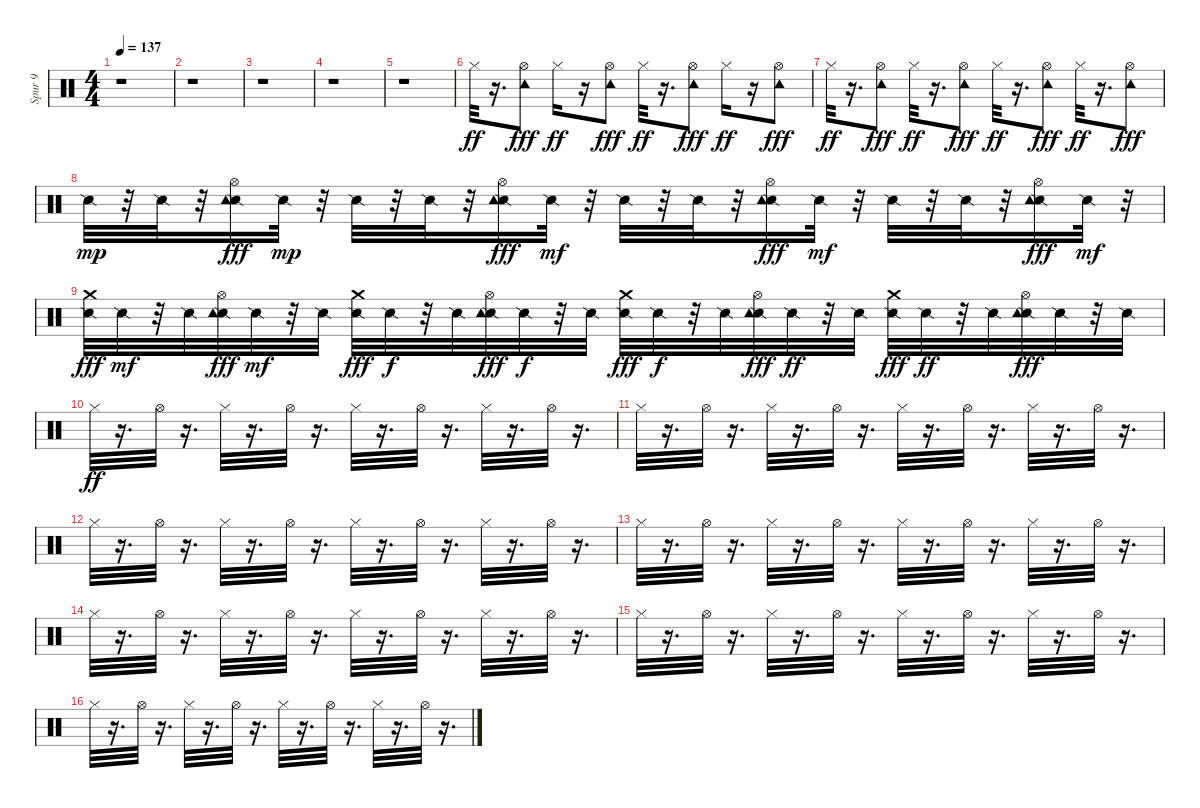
\track ("Spur 9" "Spur 9") {instrument percussion}
\staff {score}
\articulation defaults
\ts (4 4)
\tempo 137
\clef neutral
\ks c
r.1{dy ff} |
r.1 |
r.1 |
r.1 |
r.1 |
"Hi-Hat (closed)".32 r.16{d} ("Hi-Hat (open)" "Tambourine (hit)").8{dy fff} "Hi-Hat (closed)".16{dy ff} r.16 ("Hi-Hat (open)" "Tambourine (hit)").8{dy fff} "Hi-Hat (closed)".32{dy ff} r.16{d} ("Hi-Hat (open)" "Tambourine (hit)").8{dy fff} "Hi-Hat (closed)".16{dy ff} r.16 ("Hi-Hat (open)" "Tambourine (hit)").8{dy fff} |
"Hi-Hat (closed)".32{dy ff} r.16{d} ("Hi-Hat (open)" "Tambourine (hit)").8{dy fff} "Hi-Hat (closed)".32{dy ff} r.16{d} ("Hi-Hat (open)" "Tambourine (hit)").8{dy fff} "Hi-Hat (closed)".32{dy ff} r.16{d} ("Hi-Hat (open)" "Tambourine (hit)").8{dy fff} "Hi-Hat (closed)".32{dy ff} r.16{d} ("Hi-Hat (open)" "Tambourine (hit)").8{dy fff} |
"Snare (side stick) 2".32{dy mp} r.32 "Snare (side stick) 2".32 r.32 ("Snare (side stick) 2" "Hi-Hat (open)" "Tambourine (hit)").16{dy fff} "Snare (side stick) 2".32{dy mp} r.32 "Snare (side stick) 2".32 r.32 "Snare (side stick) 2".32 r.32 ("Snare (side stick) 2" "Hi-Hat (open)" "Tambourine (hit)").16{dy fff} "Snare (side stick) 2".32{dy mf} r.32 "Snare (side stick) 2".32 r.32 "Snare (side stick) 2".32 r.32 ("Snare (side stick) 2" "Hi-Hat (open)" "Tambourine (hit)").16{dy fff} "Snare (side stick) 2".32{dy mf} r.32 "Snare (side stick) 2".32 r.32 "Snare (side stick) 2".32 r.32 ("Snare (side stick) 2" "Hi-Hat (open)" "Tambourine (hit)").16{dy fff} "Snare (side stick) 2".32{dy mf} r.32 |
("Snare (side stick) 2" "Crash medium (hit)").32{dy fff} "Snare (side stick) 2".32{dy mf} r.32 "Snare (side stick) 2".32 ("Snare (side stick) 2" "Hi-Hat (open)" "Tambourine (hit)").32{dy fff} "Snare (side stick) 2".32{dy mf} r.32 "Snare (side stick) 2".32 ("Snare (side stick) 2" "Crash medium (hit)").32{dy fff} "Snare (side stick) 2".32{dy f} r.32 "Snare (side stick) 2".32 ("Snare (side stick) 2" "Hi-Hat (open)" "Tambourine (hit)").32{dy fff} "Snare (side stick) 2".32{dy f} r.32 "Snare (side stick) 2".32 ("Snare (side stick) 2" "Crash medium (hit)").32{dy fff} "Snare (side stick) 2".32{dy f} r.32 "Snare (side stick) 2".32 ("Snare (side stick) 2" "Hi-Hat (open)" "Tambourine (hit)").32{dy fff} "Snare (side stick) 2".32{dy ff} r.32 "Snare (side stick) 2".32 ("Snare (side stick) 2" "Crash medium (hit)").32{dy fff} "Snare (side stick) 2".32{dy ff} r.32 "Snare (side stick) 2".32 ("Snare (side stick) 2" "Hi-Hat (open)" "Tambourine (hit)").32{dy fff} "Snare (side stick) 2".32 r.32 "Snare (side stick) 2".32 |
"Hi-Hat (closed)".32{dy ff} r.16{d} "Hi-Hat (open)".32 r.16{d} "Hi-Hat (closed)".32 r.16{d} "Hi-Hat (open)".32 r.16{d} "Hi-Hat (closed)".32 r.16{d} "Hi-Hat (open)".32 r.16{d} "Hi-Hat (closed)".32 r.16{d} "Hi-Hat (open)".32 r.16{d} |
"Hi-Hat (closed)".32 r.16{d} "Hi-Hat (open)".32 r.16{d} "Hi-Hat (closed)".32 r.16{d} "Hi-Hat (open)".32 r.16{d} "Hi-Hat (closed)".32 r.16{d} "Hi-Hat (open)".32 r.16{d} "Hi-Hat (closed)".32 r.16{d} "Hi-Hat (open)".32 r.16{d} |
"Hi-Hat (closed)".32 r.16{d} "Hi-Hat (open)".32 r.16{d} "Hi-Hat (closed)".32 r.16{d} "Hi-Hat (open)".32 r.16{d} "Hi-Hat (closed)".32 r.16{d} "Hi-Hat (open)".32 r.16{d} "Hi-Hat (closed)".32 r.16{d} "Hi-Hat (open)".32 r.16{d} |
"Hi-Hat (closed)".32 r.16{d} "Hi-Hat (open)".32 r.16{d} "Hi-Hat (closed)".32 r.16{d} "Hi-Hat (open)".32 r.16{d} "Hi-Hat (closed)".32 r.16{d} "Hi-Hat (open)".32 r.16{d} "Hi-Hat (closed)".32 r.16{d} "Hi-Hat (open)".32 r.16{d} |
"Hi-Hat (closed)".32 r.16{d} "Hi-Hat (open)".32 r.16{d} "Hi-Hat (closed)".32 r.16{d} "Hi-Hat (open)".32 r.16{d} "Hi-Hat (closed)".32 r.16{d} "Hi-Hat (open)".32 r.16{d} "Hi-Hat (closed)".32 r.16{d} "Hi-Hat (open)".32 r.16{d} |
"Hi-Hat (closed)".32 r.16{d} "Hi-Hat (open)".32 r.16{d} "Hi-Hat (closed)".32 r.16{d} "Hi-Hat (open)".32 r.16{d} "Hi-Hat (closed)".32 r.16{d} "Hi-Hat (open)".32 r.16{d} "Hi-Hat (closed)".32 r.16{d} "Hi-Hat (open)".32 r.16{d} |
"Hi-Hat (closed)".32 r.16{d} "Hi-Hat (open)".32 r.16{d} "Hi-Hat (closed)".32 r.16{d} "Hi-Hat (open)".32 r.16{d} "Hi-Hat (closed)".32 r.16{d} "Hi-Hat (open)".32 r.16{d} "Hi-Hat (closed)".32 r.16{d} "Hi-Hat (open)".32 r.16{d}
